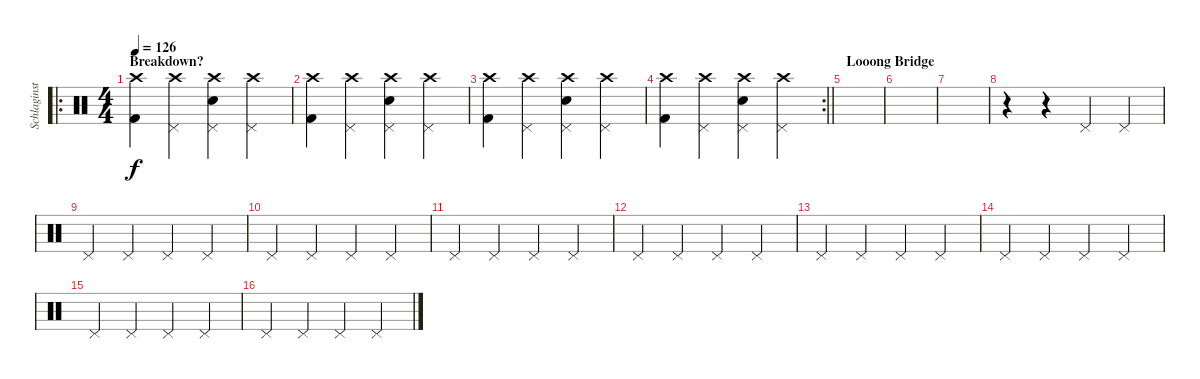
\track ("Schlaginstrumente - Auswahl" "Schlaginst") {instrument percussion}
\staff {score}
\articulation defaults
\ro
\ts (4 4)
\section ("" "Breakdown?")
\tempo 126
\clef neutral
\ks c
("Crash high (hit)" "Kick (hit) 2").4{dy f} ("Pedal Hi-Hat (hit)" "Crash high (hit)").4 ("Pedal Hi-Hat (hit)" "Crash high (hit)" "Electric Snare (hit)").4 ("Pedal Hi-Hat (hit)" "Crash high (hit)").4 |
("Crash high (hit)" "Kick (hit) 2").4 ("Pedal Hi-Hat (hit)" "Crash high (hit)").4 ("Pedal Hi-Hat (hit)" "Crash high (hit)" "Electric Snare (hit)").4 ("Pedal Hi-Hat (hit)" "Crash high (hit)").4 |
("Crash high (hit)" "Kick (hit) 2").4 ("Pedal Hi-Hat (hit)" "Crash high (hit)").4 ("Pedal Hi-Hat (hit)" "Crash high (hit)" "Electric Snare (hit)").4 ("Pedal Hi-Hat (hit)" "Crash high (hit)").4 |
\rc 2
\barLineRight lightlight
("Crash high (hit)" "Kick (hit) 2").4 ("Pedal Hi-Hat (hit)" "Crash high (hit)").4 ("Pedal Hi-Hat (hit)" "Crash high (hit)" "Electric Snare (hit)").4 ("Pedal Hi-Hat (hit)" "Crash high (hit)").4 |
\section ("" "Looong Bridge")
|
|
|
r.4 r.4 "Pedal Hi-Hat (hit)".4 "Pedal Hi-Hat (hit)".4 |
"Pedal Hi-Hat (hit)".4 "Pedal Hi-Hat (hit)".4 "Pedal Hi-Hat (hit)".4 "Pedal Hi-Hat (hit)".4 |
"Pedal Hi-Hat (hit)".4 "Pedal Hi-Hat (hit)".4 "Pedal Hi-Hat (hit)".4 "Pedal Hi-Hat (hit)".4 |
"Pedal Hi-Hat (hit)".4 "Pedal Hi-Hat (hit)".4 "Pedal Hi-Hat (hit)".4 "Pedal Hi-Hat (hit)".4 |
"Pedal Hi-Hat (hit)".4 "Pedal Hi-Hat (hit)".4 "Pedal Hi-Hat (hit)".4 "Pedal Hi-Hat (hit)".4 |
"Pedal Hi-Hat (hit)".4 "Pedal Hi-Hat (hit)".4 "Pedal Hi-Hat (hit)".4 "Pedal Hi-Hat (hit)".4 |
"Pedal Hi-Hat (hit)".4 "Pedal Hi-Hat (hit)".4 "Pedal Hi-Hat (hit)".4 "Pedal Hi-Hat (hit)".4 |
"Pedal Hi-Hat (hit)".4 "Pedal Hi-Hat (hit)".4 "Pedal Hi-Hat (hit)".4 "Pedal Hi-Hat (hit)".4 |
"Pedal Hi-Hat (hit)".4 "Pedal Hi-Hat (hit)".4 "Pedal Hi-Hat (hit)".4 "Pedal Hi-Hat (hit)".4
